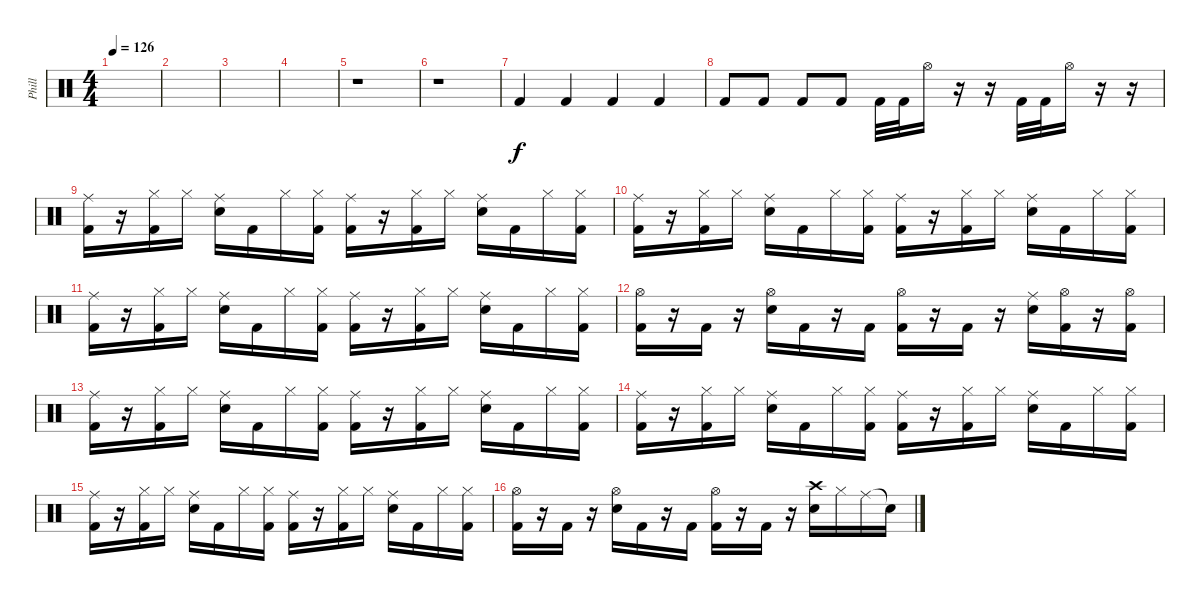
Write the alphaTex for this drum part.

\track ("Phill" "Phill") {instrument percussion}
\staff {score}
\articulation defaults
\ts (4 4)
\tempo 126
\clef neutral
\ks c
|
|
|
|
r.1 |
r.1 |
"Kick (hit) 2".4 "Kick (hit) 2".4 "Kick (hit) 2".4 "Kick (hit) 2".4 |
"Kick (hit) 2".8 "Kick (hit) 2".8 "Kick (hit) 2".8 "Kick (hit) 2".8 "Kick (hit) 2".32 "Kick (hit) 2".32 "Hi-Hat (open)".16 r.16 r.16 "Kick (hit) 2".32 "Kick (hit) 2".32 "Hi-Hat (open)".16 r.16 r.16 |
("Ride (middle)" "Kick (hit) 2").16 r.16 ("Hi-Hat (closed)" "Kick (hit) 2").16 "Hi-Hat (closed)".16 ("Ride (middle)" "Electric Snare (hit)").16 "Kick (hit) 2".16 "Hi-Hat (closed)".16 ("Hi-Hat (closed)" "Kick (hit) 2").16 ("Ride (middle)" "Kick (hit) 2").16 r.16 ("Hi-Hat (closed)" "Kick (hit) 2").16 "Hi-Hat (closed)".16 ("Ride (middle)" "Electric Snare (hit)").16 "Kick (hit) 2".16 "Hi-Hat (closed)".16 ("Hi-Hat (closed)" "Kick (hit) 2").16 |
("Ride (middle)" "Kick (hit) 2").16 r.16 ("Hi-Hat (closed)" "Kick (hit) 2").16 "Hi-Hat (closed)".16 ("Ride (middle)" "Electric Snare (hit)").16 "Kick (hit) 2".16 "Hi-Hat (closed)".16 ("Hi-Hat (closed)" "Kick (hit) 2").16 ("Ride (middle)" "Kick (hit) 2").16 r.16 ("Hi-Hat (closed)" "Kick (hit) 2").16 "Hi-Hat (closed)".16 ("Ride (middle)" "Electric Snare (hit)").16 "Kick (hit) 2".16 "Hi-Hat (closed)".16 ("Hi-Hat (closed)" "Kick (hit) 2").16 |
("Ride (middle)" "Kick (hit) 2").16 r.16 ("Hi-Hat (closed)" "Kick (hit) 2").16 "Hi-Hat (closed)".16 ("Ride (middle)" "Electric Snare (hit)").16 "Kick (hit) 2".16 "Hi-Hat (closed)".16 ("Hi-Hat (closed)" "Kick (hit) 2").16 ("Ride (middle)" "Kick (hit) 2").16 r.16 ("Hi-Hat (closed)" "Kick (hit) 2").16 "Hi-Hat (closed)".16 ("Ride (middle)" "Electric Snare (hit)").16 "Kick (hit) 2".16 "Hi-Hat (closed)".16 ("Hi-Hat (closed)" "Kick (hit) 2").16 |
("Hi-Hat (open)" "Kick (hit) 2").16 r.16 "Kick (hit) 2".16 r.16 ("Hi-Hat (open)" "Electric Snare (hit)").16 "Kick (hit) 2".16 r.16 "Kick (hit) 2".16 ("Hi-Hat (open)" "Kick (hit) 2").16 r.16 "Kick (hit) 2".16 r.16 ("Ride (middle)" "Electric Snare (hit)").16 ("Hi-Hat (open)" "Kick (hit) 2").16 r.16 ("Hi-Hat (open)" "Kick (hit) 2").16 |
("Ride (middle)" "Kick (hit) 2").16 r.16 ("Hi-Hat (closed)" "Kick (hit) 2").16 "Hi-Hat (closed)".16 ("Ride (middle)" "Electric Snare (hit)").16 "Kick (hit) 2".16 "Hi-Hat (closed)".16 ("Hi-Hat (closed)" "Kick (hit) 2").16 ("Ride (middle)" "Kick (hit) 2").16 r.16 ("Hi-Hat (closed)" "Kick (hit) 2").16 "Hi-Hat (closed)".16 ("Ride (middle)" "Electric Snare (hit)").16 "Kick (hit) 2".16 "Hi-Hat (closed)".16 ("Hi-Hat (closed)" "Kick (hit) 2").16 |
("Ride (middle)" "Kick (hit) 2").16 r.16 ("Hi-Hat (closed)" "Kick (hit) 2").16 "Hi-Hat (closed)".16 ("Ride (middle)" "Electric Snare (hit)").16 "Kick (hit) 2".16 "Hi-Hat (closed)".16 ("Hi-Hat (closed)" "Kick (hit) 2").16 ("Ride (middle)" "Kick (hit) 2").16 r.16 ("Hi-Hat (closed)" "Kick (hit) 2").16 "Hi-Hat (closed)".16 ("Ride (middle)" "Electric Snare (hit)").16 "Kick (hit) 2".16 "Hi-Hat (closed)".16 ("Hi-Hat (closed)" "Kick (hit) 2").16 |
("Ride (middle)" "Kick (hit) 2").16 r.16 ("Hi-Hat (closed)" "Kick (hit) 2").16 "Hi-Hat (closed)".16 ("Ride (middle)" "Electric Snare (hit)").16 "Kick (hit) 2".16 "Hi-Hat (closed)".16 ("Hi-Hat (closed)" "Kick (hit) 2").16 ("Ride (middle)" "Kick (hit) 2").16 r.16 ("Hi-Hat (closed)" "Kick (hit) 2").16 "Hi-Hat (closed)".16 ("Ride (middle)" "Electric Snare (hit)").16 "Kick (hit) 2".16 "Hi-Hat (closed)".16 ("Hi-Hat (closed)" "Kick (hit) 2").16 |
("Hi-Hat (open)" "Kick (hit) 2").16 r.16 "Kick (hit) 2".16 r.16 ("Hi-Hat (open)" "Electric Snare (hit)").16 "Kick (hit) 2".16 r.16 "Kick (hit) 2".16 ("Hi-Hat (open)" "Kick (hit) 2").16 r.16 "Kick (hit) 2".16 r.16 ("Crash high (hit)" "Electric Snare (hit)").16 "Hi-Hat (closed)".16 "Ride (middle)".16 "Snare (hit)"{t}.16
